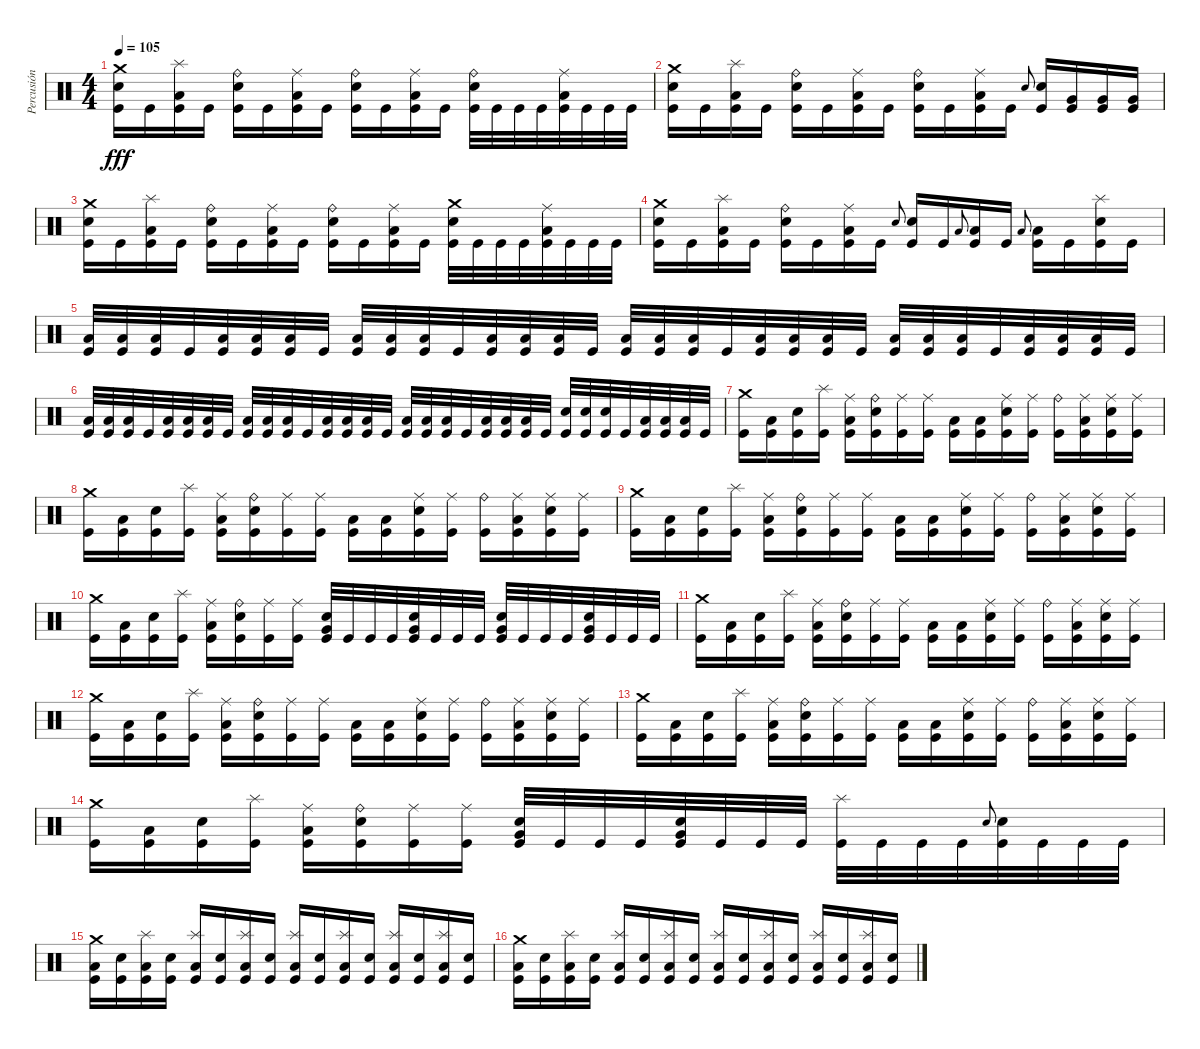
\track ("Percusión" "Percusión") {instrument percussion}
\staff {score}
\articulation defaults
\ts (4 4)
\tempo 105
\clef neutral
\ks c
("Crash medium (hit)" "Snare (hit) 2" "Kick (hit)").16{dy fff} "Kick (hit)".16 ("Splash (hit)" "Low Floor Tom (hit)" "Kick (hit)").16 "Kick (hit)".16 ("Ride (bell)" "Snare (hit) 2" "Kick (hit)").16 "Kick (hit)".16 ("Ride (middle)" "Low Floor Tom (hit)" "Kick (hit)").16 "Kick (hit)".16 ("Ride (bell)" "Snare (hit) 2" "Kick (hit)").16 "Kick (hit)".16 ("Ride (middle)" "Low Floor Tom (hit)" "Kick (hit)").16 "Kick (hit)".16 ("Ride (bell)" "Snare (hit) 2" "Kick (hit)").32 "Kick (hit)".32 "Kick (hit)".32 "Kick (hit)".32 ("Ride (middle)" "Low Floor Tom (hit)" "Kick (hit)").32 "Kick (hit)".32 "Kick (hit)".32 "Kick (hit)".32 |
("Crash medium (hit)" "Snare (hit) 2" "Kick (hit)").16 "Kick (hit)".16 ("Splash (hit)" "Low Floor Tom (hit)" "Kick (hit)").16 "Kick (hit)".16 ("Ride (bell)" "Snare (hit) 2" "Kick (hit)").16 "Kick (hit)".16 ("Ride (middle)" "Low Floor Tom (hit)" "Kick (hit)").16 "Kick (hit)".16 ("Ride (bell)" "Snare (hit) 2" "Kick (hit)").16 "Kick (hit)".16 ("Ride (middle)" "Low Floor Tom (hit)" "Kick (hit)").16 "Kick (hit)".16 "Snare (hit) 2".8{gr onbeat} ("Snare (hit) 2" "Kick (hit)").16 ("Very Low Tom (hit)" "Kick (hit)").16 ("Very Low Tom (hit)" "Kick (hit)").16 ("Very Low Tom (hit)" "Kick (hit)").16 |
("Crash medium (hit)" "Snare (hit) 2" "Kick (hit)").16 "Kick (hit)".16 ("Splash (hit)" "Low Floor Tom (hit)" "Kick (hit)").16 "Kick (hit)".16 ("Ride (bell)" "Snare (hit) 2" "Kick (hit)").16 "Kick (hit)".16 ("Ride (middle)" "Low Floor Tom (hit)" "Kick (hit)").16 "Kick (hit)".16 ("Ride (bell)" "Snare (hit) 2" "Kick (hit)").16 "Kick (hit)".16 ("Ride (middle)" "Low Floor Tom (hit)" "Kick (hit)").16 "Kick (hit)".16 ("Crash medium (hit)" "Snare (hit) 2" "Kick (hit)").32 "Kick (hit)".32 "Kick (hit)".32 "Kick (hit)".32 ("Ride (middle)" "Low Floor Tom (hit)" "Kick (hit)").32 "Kick (hit)".32 "Kick (hit)".32 "Kick (hit)".32 |
("Crash medium (hit)" "Snare (hit) 2" "Kick (hit)").16 "Kick (hit)".16 ("Splash (hit)" "Low Floor Tom (hit)" "Kick (hit)").16 "Kick (hit)".16 ("Ride (bell)" "Snare (hit) 2" "Kick (hit)").16 "Kick (hit)".16 ("Ride (middle)" "Low Floor Tom (hit)" "Kick (hit)").16 "Kick (hit)".16 "Snare (hit) 2".8{gr onbeat} ("Snare (hit) 2" "Kick (hit)").16 "Kick (hit)".16 "Low Floor Tom (hit)".8{gr onbeat} ("Low Floor Tom (hit)" "Kick (hit)").16 "Kick (hit)".16 "Low Floor Tom (hit)".8{gr onbeat} ("Low Floor Tom (hit)" "Kick (hit)").16 "Kick (hit)".16 ("Splash (hit)" "Snare (hit) 2" "Kick (hit)").16 "Kick (hit)".16 |
("Low Floor Tom (hit)" "Kick (hit)").32 ("Low Floor Tom (hit)" "Kick (hit)").32 ("Low Floor Tom (hit)" "Kick (hit)").32 "Kick (hit)".32 ("Low Floor Tom (hit)" "Kick (hit)").32 ("Low Floor Tom (hit)" "Kick (hit)").32 ("Low Floor Tom (hit)" "Kick (hit)").32 "Kick (hit)".32 ("Low Floor Tom (hit)" "Kick (hit)").32 ("Low Floor Tom (hit)" "Kick (hit)").32 ("Low Floor Tom (hit)" "Kick (hit)").32 "Kick (hit)".32 ("Low Floor Tom (hit)" "Kick (hit)").32 ("Low Floor Tom (hit)" "Kick (hit)").32 ("Low Floor Tom (hit)" "Kick (hit)").32 "Kick (hit)".32 ("Low Floor Tom (hit)" "Kick (hit)").32 ("Low Floor Tom (hit)" "Kick (hit)").32 ("Low Floor Tom (hit)" "Kick (hit)").32 "Kick (hit)".32 ("Low Floor Tom (hit)" "Kick (hit)").32 ("Low Floor Tom (hit)" "Kick (hit)").32 ("Low Floor Tom (hit)" "Kick (hit)").32 "Kick (hit)".32 ("Low Floor Tom (hit)" "Kick (hit)").32 ("Low Floor Tom (hit)" "Kick (hit)").32 ("Low Floor Tom (hit)" "Kick (hit)").32 "Kick (hit)".32 ("Low Floor Tom (hit)" "Kick (hit)").32 ("Low Floor Tom (hit)" "Kick (hit)").32 ("Low Floor Tom (hit)" "Kick (hit)").32 "Kick (hit)".32 |
("Low Floor Tom (hit)" "Kick (hit)").32 ("Low Floor Tom (hit)" "Kick (hit)").32 ("Low Floor Tom (hit)" "Kick (hit)").32 "Kick (hit)".32 ("Low Floor Tom (hit)" "Kick (hit)").32 ("Low Floor Tom (hit)" "Kick (hit)").32 ("Low Floor Tom (hit)" "Kick (hit)").32 "Kick (hit)".32 ("Low Floor Tom (hit)" "Kick (hit)").32 ("Low Floor Tom (hit)" "Kick (hit)").32 ("Low Floor Tom (hit)" "Kick (hit)").32 "Kick (hit)".32 ("Low Floor Tom (hit)" "Kick (hit)").32 ("Low Floor Tom (hit)" "Kick (hit)").32 ("Low Floor Tom (hit)" "Kick (hit)").32 "Kick (hit)".32 ("Low Floor Tom (hit)" "Kick (hit)").32 ("Low Floor Tom (hit)" "Kick (hit)").32 ("Low Floor Tom (hit)" "Kick (hit)").32 "Kick (hit)".32 ("Low Floor Tom (hit)" "Kick (hit)").32 ("Low Floor Tom (hit)" "Kick (hit)").32 ("Low Floor Tom (hit)" "Kick (hit)").32 "Kick (hit)".32 ("Snare (hit) 2" "Kick (hit)").32 ("Snare (hit) 2" "Kick (hit)").32 ("Snare (hit) 2" "Kick (hit)").32 "Kick (hit)".32 ("Low Floor Tom (hit)" "Kick (hit)").32 ("Low Floor Tom (hit)" "Kick (hit)").32 ("Low Floor Tom (hit)" "Kick (hit)").32 "Kick (hit)".32 |
("Crash medium (hit)" "Kick (hit)").16 ("Low Floor Tom (hit)" "Kick (hit)").16 ("Snare (hit) 2" "Kick (hit)").16 ("Splash (hit)" "Kick (hit)").16 ("Ride (middle)" "Low Floor Tom (hit)" "Kick (hit)").16 ("Ride (bell)" "Snare (hit) 2" "Kick (hit)").16 ("Ride (middle)" "Kick (hit)").16 ("Ride (middle)" "Kick (hit)").16 ("Low Floor Tom (hit)" "Kick (hit)").16 ("Low Floor Tom (hit)" "Kick (hit)").16 ("Ride (middle)" "Snare (hit) 2" "Kick (hit)").16 ("Ride (middle)" "Kick (hit)").16 ("Ride (bell)" "Kick (hit)").16 ("Ride (middle)" "Low Floor Tom (hit)" "Kick (hit)").16 ("Ride (middle)" "Snare (hit) 2" "Kick (hit)").16 ("Ride (middle)" "Kick (hit)").16 |
("Crash medium (hit)" "Kick (hit)").16 ("Low Floor Tom (hit)" "Kick (hit)").16 ("Snare (hit) 2" "Kick (hit)").16 ("Splash (hit)" "Kick (hit)").16 ("Ride (middle)" "Low Floor Tom (hit)" "Kick (hit)").16 ("Ride (bell)" "Snare (hit) 2" "Kick (hit)").16 ("Ride (middle)" "Kick (hit)").16 ("Ride (middle)" "Kick (hit)").16 ("Low Floor Tom (hit)" "Kick (hit)").16 ("Low Floor Tom (hit)" "Kick (hit)").16 ("Ride (middle)" "Snare (hit) 2" "Kick (hit)").16 ("Ride (middle)" "Kick (hit)").16 ("Ride (bell)" "Kick (hit)").16 ("Ride (middle)" "Low Floor Tom (hit)" "Kick (hit)").16 ("Ride (middle)" "Snare (hit) 2" "Kick (hit)").16 ("Ride (middle)" "Kick (hit)").16 |
("Crash medium (hit)" "Kick (hit)").16 ("Low Floor Tom (hit)" "Kick (hit)").16 ("Snare (hit) 2" "Kick (hit)").16 ("Splash (hit)" "Kick (hit)").16 ("Ride (middle)" "Low Floor Tom (hit)" "Kick (hit)").16 ("Ride (bell)" "Snare (hit) 2" "Kick (hit)").16 ("Ride (middle)" "Kick (hit)").16 ("Ride (middle)" "Kick (hit)").16 ("Low Floor Tom (hit)" "Kick (hit)").16 ("Low Floor Tom (hit)" "Kick (hit)").16 ("Ride (middle)" "Snare (hit) 2" "Kick (hit)").16 ("Ride (middle)" "Kick (hit)").16 ("Ride (bell)" "Kick (hit)").16 ("Ride (middle)" "Low Floor Tom (hit)" "Kick (hit)").16 ("Ride (middle)" "Snare (hit) 2" "Kick (hit)").16 ("Ride (middle)" "Kick (hit)").16 |
("Crash medium (hit)" "Kick (hit)").16 ("Low Floor Tom (hit)" "Kick (hit)").16 ("Snare (hit) 2" "Kick (hit)").16 ("Splash (hit)" "Kick (hit)").16 ("Ride (middle)" "Low Floor Tom (hit)" "Kick (hit)").16 ("Ride (bell)" "Snare (hit) 2" "Kick (hit)").16 ("Ride (middle)" "Kick (hit)").16 ("Ride (middle)" "Kick (hit)").16 ("Snare (hit) 2" "Very Low Tom (hit)" "Kick (hit)").32 "Kick (hit)".32 "Kick (hit)".32 "Kick (hit)".32 ("Snare (hit) 2" "Very Low Tom (hit)" "Kick (hit)").32 "Kick (hit)".32 "Kick (hit)".32 "Kick (hit)".32 ("Snare (hit) 2" "Very Low Tom (hit)" "Kick (hit)").32 "Kick (hit)".32 "Kick (hit)".32 "Kick (hit)".32 ("Snare (hit) 2" "Very Low Tom (hit)" "Kick (hit)").32 "Kick (hit)".32 "Kick (hit)".32 "Kick (hit)".32 |
("Crash medium (hit)" "Kick (hit)").16 ("Low Floor Tom (hit)" "Kick (hit)").16 ("Snare (hit) 2" "Kick (hit)").16 ("Splash (hit)" "Kick (hit)").16 ("Ride (middle)" "Low Floor Tom (hit)" "Kick (hit)").16 ("Ride (bell)" "Snare (hit) 2" "Kick (hit)").16 ("Ride (middle)" "Kick (hit)").16 ("Ride (middle)" "Kick (hit)").16 ("Low Floor Tom (hit)" "Kick (hit)").16 ("Low Floor Tom (hit)" "Kick (hit)").16 ("Ride (middle)" "Snare (hit) 2" "Kick (hit)").16 ("Ride (middle)" "Kick (hit)").16 ("Ride (bell)" "Kick (hit)").16 ("Ride (middle)" "Low Floor Tom (hit)" "Kick (hit)").16 ("Ride (middle)" "Snare (hit) 2" "Kick (hit)").16 ("Ride (middle)" "Kick (hit)").16 |
("Crash medium (hit)" "Kick (hit)").16 ("Low Floor Tom (hit)" "Kick (hit)").16 ("Snare (hit) 2" "Kick (hit)").16 ("Splash (hit)" "Kick (hit)").16 ("Ride (middle)" "Low Floor Tom (hit)" "Kick (hit)").16 ("Ride (bell)" "Snare (hit) 2" "Kick (hit)").16 ("Ride (middle)" "Kick (hit)").16 ("Ride (middle)" "Kick (hit)").16 ("Low Floor Tom (hit)" "Kick (hit)").16 ("Low Floor Tom (hit)" "Kick (hit)").16 ("Ride (middle)" "Snare (hit) 2" "Kick (hit)").16 ("Ride (middle)" "Kick (hit)").16 ("Ride (bell)" "Kick (hit)").16 ("Ride (middle)" "Low Floor Tom (hit)" "Kick (hit)").16 ("Ride (middle)" "Snare (hit) 2" "Kick (hit)").16 ("Ride (middle)" "Kick (hit)").16 |
("Crash medium (hit)" "Kick (hit)").16 ("Low Floor Tom (hit)" "Kick (hit)").16 ("Snare (hit) 2" "Kick (hit)").16 ("Splash (hit)" "Kick (hit)").16 ("Ride (middle)" "Low Floor Tom (hit)" "Kick (hit)").16 ("Ride (bell)" "Snare (hit) 2" "Kick (hit)").16 ("Ride (middle)" "Kick (hit)").16 ("Ride (middle)" "Kick (hit)").16 ("Low Floor Tom (hit)" "Kick (hit)").16 ("Low Floor Tom (hit)" "Kick (hit)").16 ("Ride (middle)" "Snare (hit) 2" "Kick (hit)").16 ("Ride (middle)" "Kick (hit)").16 ("Ride (bell)" "Kick (hit)").16 ("Ride (middle)" "Low Floor Tom (hit)" "Kick (hit)").16 ("Ride (middle)" "Snare (hit) 2" "Kick (hit)").16 ("Ride (middle)" "Kick (hit)").16 |
("Crash medium (hit)" "Kick (hit)").16 ("Low Floor Tom (hit)" "Kick (hit)").16 ("Snare (hit) 2" "Kick (hit)").16 ("Splash (hit)" "Kick (hit)").16 ("Ride (middle)" "Low Floor Tom (hit)" "Kick (hit)").16 ("Ride (bell)" "Snare (hit) 2" "Kick (hit)").16 ("Ride (middle)" "Kick (hit)").16 ("Ride (middle)" "Kick (hit)").16 ("Snare (hit) 2" "Very Low Tom (hit)" "Kick (hit)").32 "Kick (hit)".32 "Kick (hit)".32 "Kick (hit)".32 ("Snare (hit) 2" "Very Low Tom (hit)" "Kick (hit)").32 "Kick (hit)".32 "Kick (hit)".32 "Kick (hit)".32 ("Splash (hit)" "Kick (hit)").32 "Kick (hit)".32 "Kick (hit)".32 "Kick (hit)".32 "Snare (hit) 2".8{gr onbeat} ("Snare (hit) 2" "Kick (hit)").32 "Kick (hit)".32 "Kick (hit)".32 "Kick (hit)".32 |
("Crash medium (hit)" "Low Floor Tom (hit)" "Kick (hit)").16 ("Snare (hit) 2" "Kick (hit)").16 ("Splash (hit)" "Low Floor Tom (hit)" "Kick (hit)").16 ("Snare (hit) 2" "Kick (hit)").16 ("Splash (hit)" "Low Floor Tom (hit)" "Kick (hit)").16 ("Snare (hit) 2" "Kick (hit)").16 ("Splash (hit)" "Low Floor Tom (hit)" "Kick (hit)").16 ("Snare (hit) 2" "Kick (hit)").16 ("Splash (hit)" "Low Floor Tom (hit)" "Kick (hit)").16 ("Snare (hit) 2" "Kick (hit)").16 ("Splash (hit)" "Low Floor Tom (hit)" "Kick (hit)").16 ("Snare (hit) 2" "Kick (hit)").16 ("Splash (hit)" "Low Floor Tom (hit)" "Kick (hit)").16 ("Snare (hit) 2" "Kick (hit)").16 ("Splash (hit)" "Low Floor Tom (hit)" "Kick (hit)").16 ("Snare (hit) 2" "Kick (hit)").16 |
("Crash medium (hit)" "Low Floor Tom (hit)" "Kick (hit)").16 ("Snare (hit) 2" "Kick (hit)").16 ("Splash (hit)" "Low Floor Tom (hit)" "Kick (hit)").16 ("Snare (hit) 2" "Kick (hit)").16 ("Splash (hit)" "Low Floor Tom (hit)" "Kick (hit)").16 ("Snare (hit) 2" "Kick (hit)").16 ("Splash (hit)" "Low Floor Tom (hit)" "Kick (hit)").16 ("Snare (hit) 2" "Kick (hit)").16 ("Splash (hit)" "Low Floor Tom (hit)" "Kick (hit)").16 ("Snare (hit) 2" "Kick (hit)").16 ("Splash (hit)" "Low Floor Tom (hit)" "Kick (hit)").16 ("Snare (hit) 2" "Kick (hit)").16 ("Splash (hit)" "Low Floor Tom (hit)" "Kick (hit)").16 ("Snare (hit) 2" "Kick (hit)").16 ("Splash (hit)" "Low Floor Tom (hit)" "Kick (hit)").16 ("Snare (hit) 2" "Kick (hit)").16
